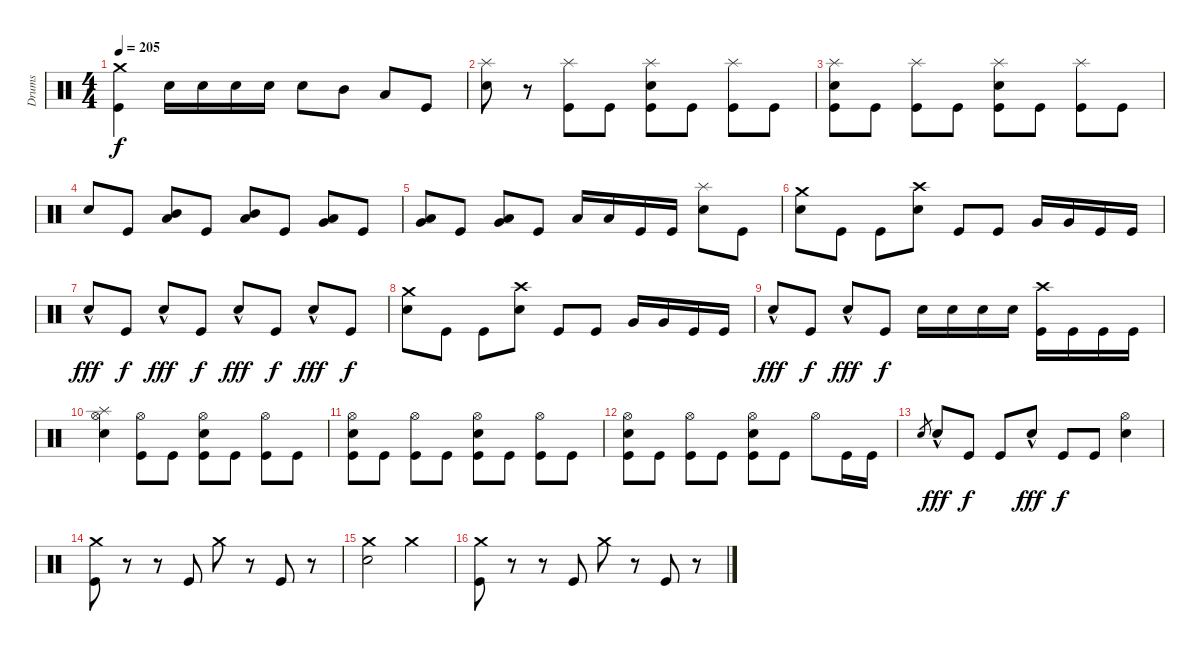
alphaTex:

\track ("Drums" "Drums") {instrument percussion}
\staff {score}
\articulation defaults
\ts (4 4)
\tempo 205
\clef neutral
\ks c
("Crash medium (hit)" "Kick (hit)").4{dy f} "Electric Snare (hit)".16 "Electric Snare (hit)".16 "Electric Snare (hit)".16 "Electric Snare (hit)".16 "Electric Snare (hit)".8 "Mid Tom (hit)".8 "Low Tom (hit)".8 "Kick (hit)".8 |
("Electric Snare (hit)" "Splash (hit)").8 r.8 ("Splash (hit)" "Kick (hit)").8 "Kick (hit)".8 ("Electric Snare (hit)" "Splash (hit)" "Kick (hit)").8 "Kick (hit)".8 ("Splash (hit)" "Kick (hit)").8 "Kick (hit)".8 |
("Electric Snare (hit)" "Splash (hit)" "Kick (hit)").8 "Kick (hit)".8 ("Splash (hit)" "Kick (hit)").8 "Kick (hit)".8 ("Electric Snare (hit)" "Splash (hit)" "Kick (hit)").8 "Kick (hit)".8 ("Splash (hit)" "Kick (hit)").8 "Kick (hit)".8 |
"Electric Snare (hit)".8 "Kick (hit)".8 ("Mid Tom (hit)" "Low Tom (hit)").8 "Kick (hit)".8 ("Mid Tom (hit)" "Low Tom (hit)").8 "Kick (hit)".8 ("Low Tom (hit)" "Very Low Tom (hit)").8 "Kick (hit)".8 |
("Low Tom (hit)" "Very Low Tom (hit)").8 "Kick (hit)".8 ("Very Low Tom (hit)" "Low Floor Tom (hit)").8 "Kick (hit)".8 "Low Tom (hit)".16 "Low Tom (hit)".16 "Kick (hit)".16 "Kick (hit)".16 ("Electric Snare (hit)" "Splash (hit)").8 "Kick (hit)".8 |
("Electric Snare (hit)" "Crash medium (hit)").8 "Kick (hit)".8 "Kick (hit)".8 ("Electric Snare (hit)" "Crash high (hit)").8 "Kick (hit)".8 "Kick (hit)".8 "Very Low Tom (hit)".16 "Very Low Tom (hit)".16 "Kick (hit)".16 "Kick (hit)".16 |
"Electric Snare (hit)"{hac}.8{dy fff} "Kick (hit)".8{dy f} "Electric Snare (hit)"{hac}.8{dy fff} "Kick (hit)".8{dy f} "Electric Snare (hit)"{hac}.8{dy fff} "Kick (hit)".8{dy f} "Electric Snare (hit)"{hac}.8{dy fff} "Kick (hit)".8{dy f} |
("Electric Snare (hit)" "Crash medium (hit)").8 "Kick (hit)".8 "Kick (hit)".8 ("Electric Snare (hit)" "Crash high (hit)").8 "Kick (hit)".8 "Kick (hit)".8 "Very Low Tom (hit)".16 "Very Low Tom (hit)".16 "Kick (hit)".16 "Kick (hit)".16 |
"Electric Snare (hit)"{hac}.8{dy fff} "Kick (hit)".8{dy f} "Electric Snare (hit)"{hac}.8{dy fff} "Kick (hit)".8{dy f} "Electric Snare (hit)".16 "Electric Snare (hit)".16 "Electric Snare (hit)".16 "Electric Snare (hit)".16 ("Crash high (hit)" "Kick (hit)").16 "Kick (hit)".16 "Kick (hit)".16 "Kick (hit)".16 |
("Electric Snare (hit)" "Splash (hit)" "Hi-Hat (open)").4 ("Hi-Hat (open)" "Kick (hit)").8 "Kick (hit)".8 ("Electric Snare (hit)" "Hi-Hat (open)" "Kick (hit)").8 "Kick (hit)".8 ("Hi-Hat (open)" "Kick (hit)").8 "Kick (hit)".8 |
("Electric Snare (hit)" "Hi-Hat (open)" "Kick (hit)").8 "Kick (hit)".8 ("Hi-Hat (open)" "Kick (hit)").8 "Kick (hit)".8 ("Electric Snare (hit)" "Hi-Hat (open)" "Kick (hit)").8 "Kick (hit)".8 ("Hi-Hat (open)" "Kick (hit)").8 "Kick (hit)".8 |
("Electric Snare (hit)" "Hi-Hat (open)" "Kick (hit)").8 "Kick (hit)".8 ("Hi-Hat (open)" "Kick (hit)").8 "Kick (hit)".8 ("Electric Snare (hit)" "Hi-Hat (open)" "Kick (hit)").8 "Kick (hit)".8 "Hi-Hat (open)".8 "Kick (hit)".16 "Kick (hit)".16 |
"Electric Snare (hit)".8{gr} "Electric Snare (hit)"{hac}.8{dy fff} "Kick (hit)".8{dy f} "Kick (hit)".8 "Electric Snare (hit)"{hac}.8{dy fff} "Kick (hit)".8{dy f} "Kick (hit)".8 ("Electric Snare (hit)" "Hi-Hat (open)").4 |
("Crash medium (hit)" "Kick (hit)").8 r.8 r.8 "Kick (hit)".8 "Crash medium (hit)".8 r.8 "Kick (hit)".8 r.8 |
("Electric Snare (hit)" "Crash medium (hit)").2 "Crash medium (hit)".2 |
("Crash medium (hit)" "Kick (hit)").8 r.8 r.8 "Kick (hit)".8 "Crash medium (hit)".8 r.8 "Kick (hit)".8 r.8
